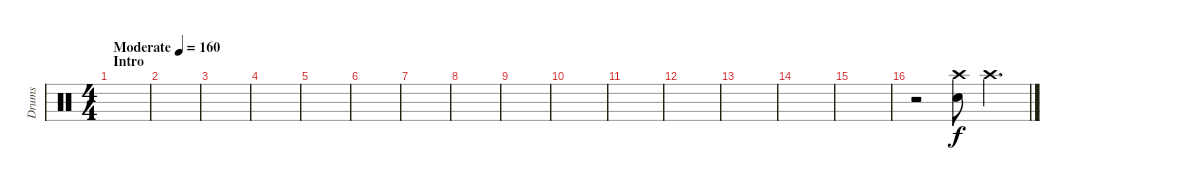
\track ("Drums" "Drums") {instrument percussion}
\staff {score}
\articulation defaults
\ts (4 4)
\section ("" "Intro")
\tempo (160 "Moderate")
\clef neutral
\ks c
|
|
|
|
|
|
|
|
|
|
|
|
|
|
|
r.2 ("Crash high (hit)" "Snare (hit) 2").8 "Crash high (hit)".4{d}
